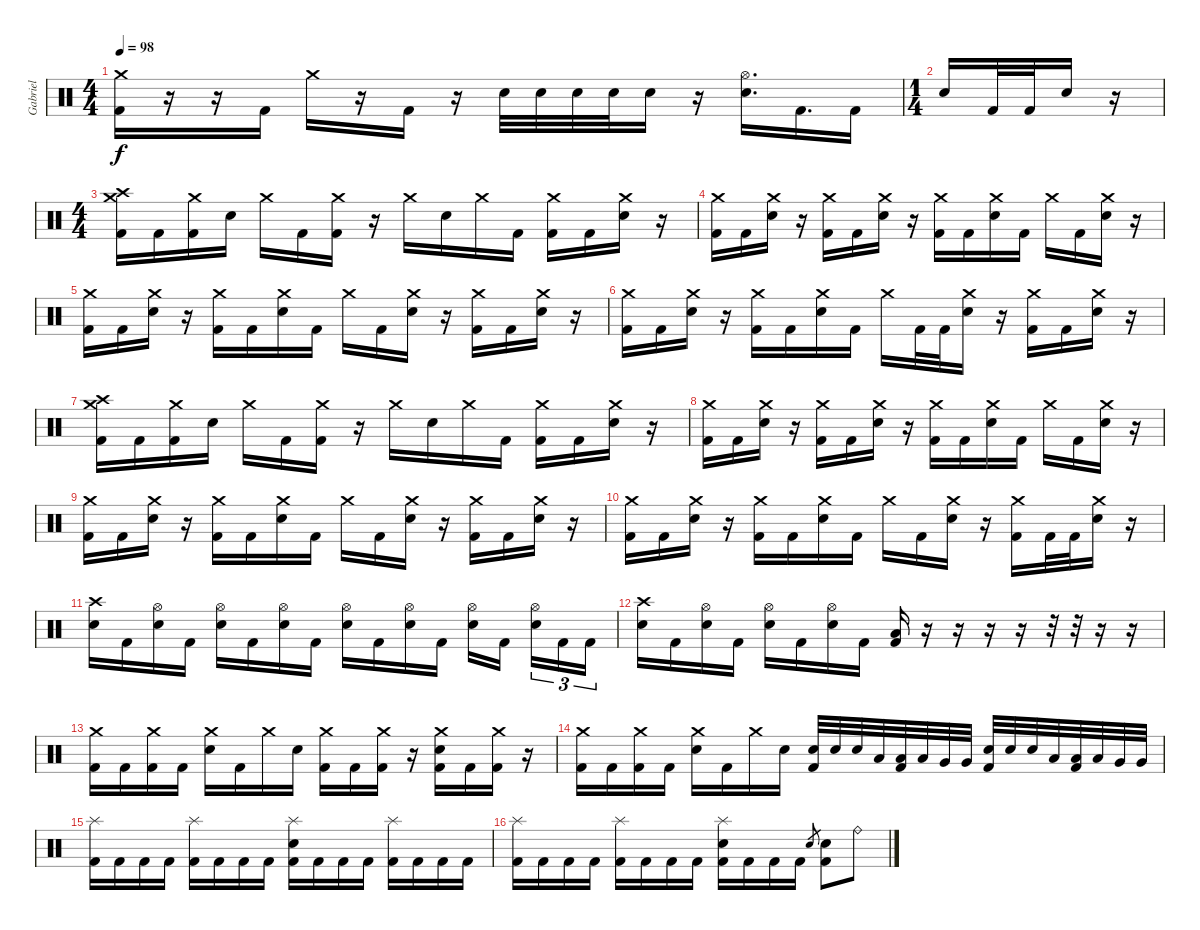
\track ("Gabriel" "Gabriel") {instrument percussion}
\staff {score}
\articulation defaults
\ts (4 4)
\tempo 98
\clef neutral
\ks c
("Crash medium (hit)" "Kick (hit) 2").16{dy f} r.16 r.16 "Kick (hit) 2".16 "Crash medium (hit)".16 r.16 "Kick (hit) 2".16 r.16 "Electric Snare (hit)".32 "Electric Snare (hit)".32 "Electric Snare (hit)".32 "Electric Snare (hit)".32 "Electric Snare (hit)".16 r.16 ("Hi-Hat (open)" "Electric Snare (hit)").16{d} "Kick (hit) 2".16{d} "Kick (hit) 2".16 |
\ts (1 4)
"Electric Snare (hit)".16 "Kick (hit) 2".32 "Kick (hit) 2".32 "Electric Snare (hit)".16 r.16 |
\ts (4 4)
("Crash high (hit)" "Crash medium (hit)" "Kick (hit) 2").16 "Kick (hit) 2".16 ("Crash medium (hit)" "Kick (hit) 2").16 "Electric Snare (hit)".16 "Crash medium (hit)".16 "Kick (hit) 2".16 ("Crash medium (hit)" "Kick (hit) 2").16 r.16 "Crash medium (hit)".16 "Electric Snare (hit)".16 "Crash medium (hit)".16 "Kick (hit) 2".16 ("Crash medium (hit)" "Kick (hit) 2").16 "Kick (hit) 2".16 ("Crash medium (hit)" "Electric Snare (hit)").16 r.16 |
("Crash medium (hit)" "Kick (hit) 2").16 "Kick (hit) 2".16 ("Crash medium (hit)" "Electric Snare (hit)").16 r.16 ("Crash medium (hit)" "Kick (hit) 2").16 "Kick (hit) 2".16 ("Crash medium (hit)" "Electric Snare (hit)").16 r.16 ("Crash medium (hit)" "Kick (hit) 2").16 "Kick (hit) 2".16 ("Crash medium (hit)" "Electric Snare (hit)").16 "Kick (hit) 2".16 "Crash medium (hit)".16 "Kick (hit) 2".16 ("Crash medium (hit)" "Electric Snare (hit)").16 r.16 |
("Crash medium (hit)" "Kick (hit) 2").16 "Kick (hit) 2".16 ("Crash medium (hit)" "Electric Snare (hit)").16 r.16 ("Crash medium (hit)" "Kick (hit) 2").16 "Kick (hit) 2".16 ("Crash medium (hit)" "Electric Snare (hit)").16 "Kick (hit) 2".16 "Crash medium (hit)".16 "Kick (hit) 2".16 ("Crash medium (hit)" "Electric Snare (hit)").16 r.16 ("Crash medium (hit)" "Kick (hit) 2").16 "Kick (hit) 2".16 ("Crash medium (hit)" "Electric Snare (hit)").16 r.16 |
("Crash medium (hit)" "Kick (hit) 2").16 "Kick (hit) 2".16 ("Crash medium (hit)" "Electric Snare (hit)").16 r.16 ("Crash medium (hit)" "Kick (hit) 2").16 "Kick (hit) 2".16 ("Crash medium (hit)" "Electric Snare (hit)").16 "Kick (hit) 2".16 "Crash medium (hit)".16 "Kick (hit) 2".32 "Kick (hit) 2".32 ("Crash medium (hit)" "Electric Snare (hit)").16 r.16 ("Crash medium (hit)" "Kick (hit) 2").16 "Kick (hit) 2".16 ("Crash medium (hit)" "Electric Snare (hit)").16 r.16 |
("Crash high (hit)" "Crash medium (hit)" "Kick (hit) 2").16 "Kick (hit) 2".16 ("Crash medium (hit)" "Kick (hit) 2").16 "Electric Snare (hit)".16 "Crash medium (hit)".16 "Kick (hit) 2".16 ("Crash medium (hit)" "Kick (hit) 2").16 r.16 "Crash medium (hit)".16 "Electric Snare (hit)".16 "Crash medium (hit)".16 "Kick (hit) 2".16 ("Crash medium (hit)" "Kick (hit) 2").16 "Kick (hit) 2".16 ("Crash medium (hit)" "Electric Snare (hit)").16 r.16 |
("Crash medium (hit)" "Kick (hit) 2").16 "Kick (hit) 2".16 ("Crash medium (hit)" "Electric Snare (hit)").16 r.16 ("Crash medium (hit)" "Kick (hit) 2").16 "Kick (hit) 2".16 ("Crash medium (hit)" "Electric Snare (hit)").16 r.16 ("Crash medium (hit)" "Kick (hit) 2").16 "Kick (hit) 2".16 ("Crash medium (hit)" "Electric Snare (hit)").16 "Kick (hit) 2".16 "Crash medium (hit)".16 "Kick (hit) 2".16 ("Crash medium (hit)" "Electric Snare (hit)").16 r.16 |
("Crash medium (hit)" "Kick (hit) 2").16 "Kick (hit) 2".16 ("Crash medium (hit)" "Electric Snare (hit)").16 r.16 ("Crash medium (hit)" "Kick (hit) 2").16 "Kick (hit) 2".16 ("Crash medium (hit)" "Electric Snare (hit)").16 "Kick (hit) 2".16 "Crash medium (hit)".16 "Kick (hit) 2".16 ("Crash medium (hit)" "Electric Snare (hit)").16 r.16 ("Crash medium (hit)" "Kick (hit) 2").16 "Kick (hit) 2".16 ("Crash medium (hit)" "Electric Snare (hit)").16 r.16 |
("Crash medium (hit)" "Kick (hit) 2").16 "Kick (hit) 2".16 ("Crash medium (hit)" "Electric Snare (hit)").16 r.16 ("Crash medium (hit)" "Kick (hit) 2").16 "Kick (hit) 2".16 ("Crash medium (hit)" "Electric Snare (hit)").16 "Kick (hit) 2".16 "Crash medium (hit)".16 "Kick (hit) 2".16 ("Crash medium (hit)" "Electric Snare (hit)").16 r.16 ("Crash medium (hit)" "Kick (hit) 2").16 "Kick (hit) 2".32 "Kick (hit) 2".32 ("Crash medium (hit)" "Electric Snare (hit)").16 r.16 |
("Crash high (hit)" "Electric Snare (hit)").16 "Kick (hit) 2".16 ("Hi-Hat (open)" "Electric Snare (hit)").16 "Kick (hit) 2".16 ("Hi-Hat (open)" "Electric Snare (hit)").16 "Kick (hit) 2".16 ("Hi-Hat (open)" "Electric Snare (hit)").16 "Kick (hit) 2".16 ("Hi-Hat (open)" "Electric Snare (hit)").16 "Kick (hit) 2".16 ("Hi-Hat (open)" "Electric Snare (hit)").16 "Kick (hit) 2".16 ("Hi-Hat (open)" "Electric Snare (hit)").16 "Kick (hit) 2".16{beam splitsecondary} ("Hi-Hat (open)" "Electric Snare (hit)").16{tu (3 2)} "Kick (hit) 2".16{tu (3 2)} "Kick (hit) 2".16{tu (3 2)} |
("Crash high (hit)" "Electric Snare (hit)").16 "Kick (hit) 2".16 ("Hi-Hat (open)" "Electric Snare (hit)").16 "Kick (hit) 2".16 ("Hi-Hat (open)" "Electric Snare (hit)").16 "Kick (hit) 2".16 ("Hi-Hat (open)" "Electric Snare (hit)").16 "Kick (hit) 2".16 ("Low Tom (hit)" "Kick (hit) 2").16 r.16 r.16 r.16 r.16 r.32 r.32 r.16 r.16 |
("Crash medium (hit)" "Kick (hit) 2").16 "Kick (hit) 2".16 ("Crash medium (hit)" "Kick (hit) 2").16 "Kick (hit) 2".16 ("Crash medium (hit)" "Electric Snare (hit)").16 "Kick (hit) 2".16 "Crash medium (hit)".16 "Electric Snare (hit)".16 ("Crash medium (hit)" "Kick (hit) 2").16 "Kick (hit) 2".16 ("Crash medium (hit)" "Kick (hit) 2").16 r.16 ("Crash medium (hit)" "Electric Snare (hit)" "Kick (hit) 2").16 "Kick (hit) 2".16 ("Crash medium (hit)" "Kick (hit) 2").16 r.16 |
("Crash medium (hit)" "Kick (hit) 2").16 "Kick (hit) 2".16 ("Crash medium (hit)" "Kick (hit) 2").16 "Kick (hit) 2".16 ("Crash medium (hit)" "Electric Snare (hit)").16 "Kick (hit) 2".16 "Crash medium (hit)".16 "Electric Snare (hit)".16 ("Electric Snare (hit)" "Kick (hit) 2").32 "Electric Snare (hit)".32 "Electric Snare (hit)".32 "Low Tom (hit)".32 ("Low Tom (hit)" "Kick (hit) 2").32 "Low Tom (hit)".32 "Very Low Tom (hit)".32 "Very Low Tom (hit)".32 ("Electric Snare (hit)" "Kick (hit) 2").32 "Electric Snare (hit)".32 "Electric Snare (hit)".32 "Low Tom (hit)".32 ("Low Tom (hit)" "Kick (hit) 2").32 "Low Tom (hit)".32 "Very Low Tom (hit)".32 "Very Low Tom (hit)".32 |
("Splash (hit)" "Kick (hit) 2").16 "Kick (hit) 2".16 "Kick (hit) 2".16 "Kick (hit) 2".16 ("Splash (hit)" "Kick (hit) 2").16 "Kick (hit) 2".16 "Kick (hit) 2".16 "Kick (hit) 2".16 ("Splash (hit)" "Electric Snare (hit)" "Kick (hit) 2").16 "Kick (hit) 2".16 "Kick (hit) 2".16 "Kick (hit) 2".16 ("Splash (hit)" "Kick (hit) 2").16 "Kick (hit) 2".16 "Kick (hit) 2".16 "Kick (hit) 2".16 |
("Splash (hit)" "Kick (hit) 2").16 "Kick (hit) 2".16 "Kick (hit) 2".16 "Kick (hit) 2".16 ("Splash (hit)" "Kick (hit) 2").16 "Kick (hit) 2".16 "Kick (hit) 2".16 "Kick (hit) 2".16 ("Splash (hit)" "Electric Snare (hit)" "Kick (hit) 2").16 "Kick (hit) 2".16 "Kick (hit) 2".16 "Kick (hit) 2".16 "Electric Snare (hit)".8{gr} ("Electric Snare (hit)" "Kick (hit) 2").8 "Ride (bell)".8
